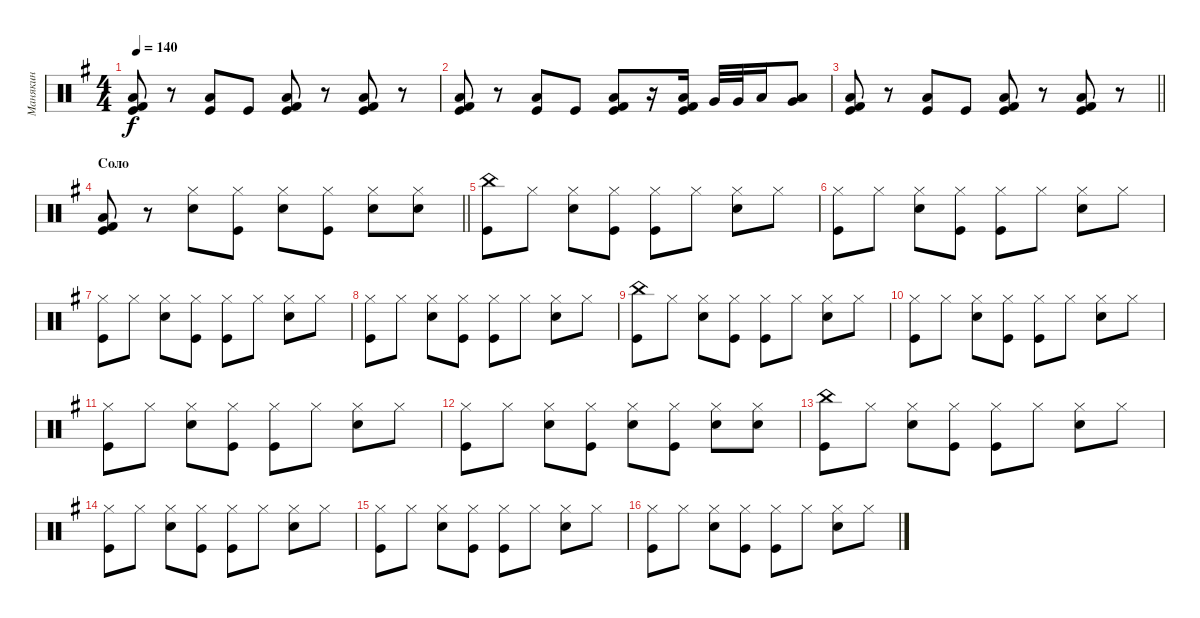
\track ("Манякин" "Манякин") {instrument percussion}
\staff {score}
\articulation defaults
\ts (4 4)
\tempo 140
\clef neutral
\ks g
("Kick (hit) 2" "Low Floor Tom (hit)" "Kick (hit)").8{dy f} r.8 ("Low Tom (hit)" "Kick (hit)").8 "Kick (hit)".8 ("Kick (hit) 2" "Low Floor Tom (hit)" "Kick (hit)").8 r.8 ("Kick (hit) 2" "Low Tom (hit)" "Kick (hit)").8 r.8 |
("Kick (hit) 2" "Low Floor Tom (hit)" "Kick (hit)").8 r.8 ("Low Tom (hit)" "Kick (hit)").8 "Kick (hit)".8 ("Kick (hit) 2" "Low Floor Tom (hit)" "Kick (hit)").8 r.16 ("Low Tom (hit)" "Kick (hit) 2" "Kick (hit)").16 "Very Low Tom (hit)".32 "Very Low Tom (hit)".32 "Low Floor Tom (hit)".16 ("Low Floor Tom (hit)" "Very Low Tom (hit)").8 |
\barLineRight lightlight
("Kick (hit) 2" "Low Floor Tom (hit)" "Kick (hit)").8 r.8 ("Low Tom (hit)" "Kick (hit)").8 "Kick (hit)".8 ("Kick (hit) 2" "Low Floor Tom (hit)" "Kick (hit)").8 r.8 ("Kick (hit) 2" "Low Tom (hit)" "Kick (hit)").8 r.8 |
\section ("" "Соло")
\barLineRight lightlight
("Kick (hit) 2" "Low Floor Tom (hit)" "Kick (hit)").8 r.8 ("Hi-Hat (closed)" "Snare (hit) 2").8 ("Hi-Hat (closed)" "Kick (hit)").8 ("Hi-Hat (closed)" "Snare (hit) 2").8 ("Hi-Hat (closed)" "Kick (hit)").8 ("Hi-Hat (closed)" "Snare (hit) 2").8 ("Hi-Hat (closed)" "Snare (hit) 2").8 |
("China (hit)" "Kick (hit)").8 "Hi-Hat (closed)".8 ("Hi-Hat (closed)" "Snare (hit) 2").8 ("Hi-Hat (closed)" "Kick (hit)").8 ("Hi-Hat (closed)" "Kick (hit)").8 "Hi-Hat (closed)".8 ("Hi-Hat (closed)" "Snare (hit) 2").8 "Hi-Hat (closed)".8 |
("Hi-Hat (closed)" "Kick (hit)").8 "Hi-Hat (closed)".8 ("Hi-Hat (closed)" "Snare (hit) 2").8 ("Hi-Hat (closed)" "Kick (hit)").8 ("Hi-Hat (closed)" "Kick (hit)").8 "Hi-Hat (closed)".8 ("Hi-Hat (closed)" "Snare (hit) 2").8 "Hi-Hat (closed)".8 |
("Hi-Hat (closed)" "Kick (hit)").8 "Hi-Hat (closed)".8 ("Hi-Hat (closed)" "Snare (hit) 2").8 ("Hi-Hat (closed)" "Kick (hit)").8 ("Hi-Hat (closed)" "Kick (hit)").8 "Hi-Hat (closed)".8 ("Hi-Hat (closed)" "Snare (hit) 2").8 "Hi-Hat (closed)".8 |
("Hi-Hat (closed)" "Kick (hit)").8 "Hi-Hat (closed)".8 ("Hi-Hat (closed)" "Snare (hit) 2").8 ("Hi-Hat (closed)" "Kick (hit)").8 ("Hi-Hat (closed)" "Kick (hit)").8 "Hi-Hat (closed)".8 ("Hi-Hat (closed)" "Snare (hit) 2").8 "Hi-Hat (closed)".8 |
("China (hit)" "Kick (hit)").8 "Hi-Hat (closed)".8 ("Hi-Hat (closed)" "Snare (hit) 2").8 ("Hi-Hat (closed)" "Kick (hit)").8 ("Hi-Hat (closed)" "Kick (hit)").8 "Hi-Hat (closed)".8 ("Hi-Hat (closed)" "Snare (hit) 2").8 "Hi-Hat (closed)".8 |
("Hi-Hat (closed)" "Kick (hit)").8 "Hi-Hat (closed)".8 ("Hi-Hat (closed)" "Snare (hit) 2").8 ("Hi-Hat (closed)" "Kick (hit)").8 ("Hi-Hat (closed)" "Kick (hit)").8 "Hi-Hat (closed)".8 ("Hi-Hat (closed)" "Snare (hit) 2").8 "Hi-Hat (closed)".8 |
("Hi-Hat (closed)" "Kick (hit)").8 "Hi-Hat (closed)".8 ("Hi-Hat (closed)" "Snare (hit) 2").8 ("Hi-Hat (closed)" "Kick (hit)").8 ("Hi-Hat (closed)" "Kick (hit)").8 "Hi-Hat (closed)".8 ("Hi-Hat (closed)" "Snare (hit) 2").8 "Hi-Hat (closed)".8 |
("Hi-Hat (closed)" "Kick (hit)").8 "Hi-Hat (closed)".8 ("Hi-Hat (closed)" "Snare (hit) 2").8 ("Hi-Hat (closed)" "Kick (hit)").8 ("Hi-Hat (closed)" "Snare (hit) 2").8 ("Hi-Hat (closed)" "Kick (hit)").8 ("Hi-Hat (closed)" "Snare (hit) 2").8 ("Hi-Hat (closed)" "Snare (hit) 2").8 |
("China (hit)" "Kick (hit)").8 "Hi-Hat (closed)".8 ("Hi-Hat (closed)" "Snare (hit) 2").8 ("Hi-Hat (closed)" "Kick (hit)").8 ("Hi-Hat (closed)" "Kick (hit)").8 "Hi-Hat (closed)".8 ("Hi-Hat (closed)" "Snare (hit) 2").8 "Hi-Hat (closed)".8 |
("Hi-Hat (closed)" "Kick (hit)").8 "Hi-Hat (closed)".8 ("Hi-Hat (closed)" "Snare (hit) 2").8 ("Hi-Hat (closed)" "Kick (hit)").8 ("Hi-Hat (closed)" "Kick (hit)").8 "Hi-Hat (closed)".8 ("Hi-Hat (closed)" "Snare (hit) 2").8 "Hi-Hat (closed)".8 |
("Hi-Hat (closed)" "Kick (hit)").8 "Hi-Hat (closed)".8 ("Hi-Hat (closed)" "Snare (hit) 2").8 ("Hi-Hat (closed)" "Kick (hit)").8 ("Hi-Hat (closed)" "Kick (hit)").8 "Hi-Hat (closed)".8 ("Hi-Hat (closed)" "Snare (hit) 2").8 "Hi-Hat (closed)".8 |
("Hi-Hat (closed)" "Kick (hit)").8 "Hi-Hat (closed)".8 ("Hi-Hat (closed)" "Snare (hit) 2").8 ("Hi-Hat (closed)" "Kick (hit)").8 ("Hi-Hat (closed)" "Kick (hit)").8 "Hi-Hat (closed)".8 ("Hi-Hat (closed)" "Snare (hit) 2").8 "Hi-Hat (closed)".8
